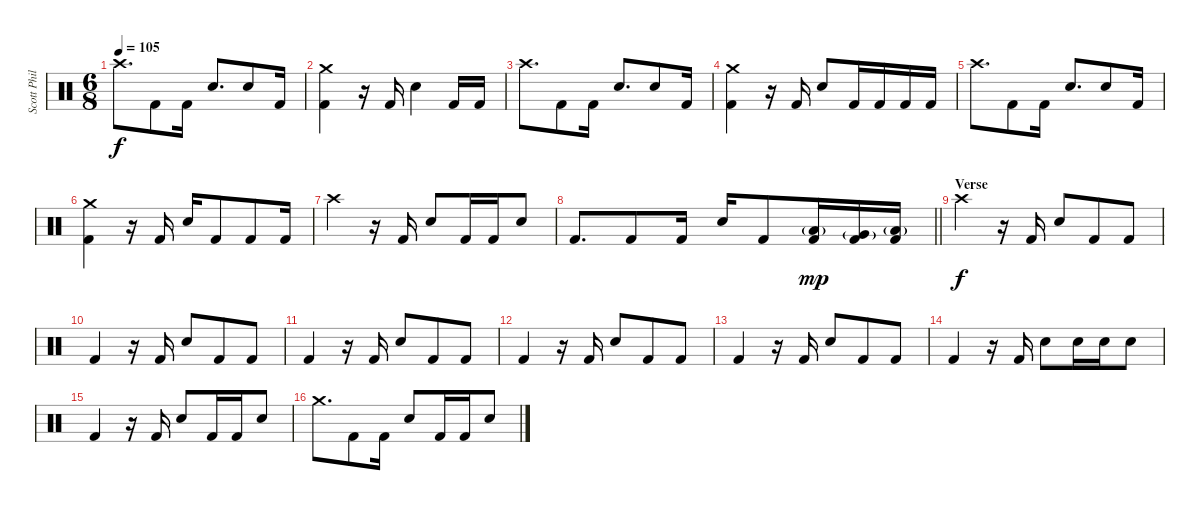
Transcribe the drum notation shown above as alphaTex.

\track ("Scott Phillips (Drums)" "Scott Phil") {instrument percussion}
\staff {score}
\articulation defaults
\ts (6 8)
\tempo 105
\clef neutral
\ks c "Crash high (hit)".8{d dy f} "Kick (hit) 2".8 "Kick (hit) 2".16 "Electric Snare (hit)".8{d} "Electric Snare (hit)".8 "Kick (hit) 2".16
|
("Crash medium (hit)" "Kick (hit) 2").4 r.16 "Kick (hit) 2".16 "Electric Snare (hit)".4 "Kick (hit) 2".16 "Kick (hit) 2".16 |
"Crash high (hit)".8{d} "Kick (hit) 2".8 "Kick (hit) 2".16 "Electric Snare (hit)".8{d} "Electric Snare (hit)".8 "Kick (hit) 2".16 |
("Crash medium (hit)" "Kick (hit) 2").4 r.16 "Kick (hit) 2".16 "Electric Snare (hit)".8 "Kick (hit) 2".16 "Kick (hit) 2".16 "Kick (hit) 2".16 "Kick (hit) 2".16 |
"Crash high (hit)".8{d} "Kick (hit) 2".8 "Kick (hit) 2".16 "Electric Snare (hit)".8{d} "Electric Snare (hit)".8 "Kick (hit) 2".16 |
("Crash medium (hit)" "Kick (hit) 2").4 r.16 "Kick (hit) 2".16 "Electric Snare (hit)".16 "Kick (hit) 2".8 "Kick (hit) 2".8 "Kick (hit) 2".16 |
"Crash high (hit)".4 r.16 "Kick (hit) 2".16 "Electric Snare (hit)".8 "Kick (hit) 2".16 "Kick (hit) 2".16 "Electric Snare (hit)".8 |
\barLineRight lightlight "Kick (hit) 2".8{d} "Kick (hit) 2".8 "Kick (hit) 2".16 "Electric Snare (hit)".16 "Kick (hit) 2".8
("Kick (hit) 2" "Low Tom (hit)"{g}).16{dy mp} ("Kick (hit) 2" "Very Low Tom (hit)"{g}).16 ("Kick (hit) 2" "Low Floor Tom (hit)"{g}).16 |
\section ("" "Verse")
"Crash high (hit)".4{dy f} r.16 "Kick (hit) 2".16 "Electric Snare (hit)".8 "Kick (hit) 2".8 "Kick (hit) 2".8 |
"Kick (hit) 2".4 r.16 "Kick (hit) 2".16 "Electric Snare (hit)".8 "Kick (hit) 2".8 "Kick (hit) 2".8 |
"Kick (hit) 2".4 r.16 "Kick (hit) 2".16 "Electric Snare (hit)".8 "Kick (hit) 2".8 "Kick (hit) 2".8 |
"Kick (hit) 2".4 r.16 "Kick (hit) 2".16 "Electric Snare (hit)".8 "Kick (hit) 2".8 "Kick (hit) 2".8 |
"Kick (hit) 2".4 r.16 "Kick (hit) 2".16 "Electric Snare (hit)".8 "Kick (hit) 2".8 "Kick (hit) 2".8 |
"Kick (hit) 2".4 r.16 "Kick (hit) 2".16 "Electric Snare (hit)".8 "Electric Snare (hit)".16 "Electric Snare (hit)".16 "Electric Snare (hit)".8 |
"Kick (hit) 2".4 r.16 "Kick (hit) 2".16 "Electric Snare (hit)".8 "Kick (hit) 2".16 "Kick (hit) 2".16 "Electric Snare (hit)".8 |
"Crash medium (hit)".8{d} "Kick (hit) 2".8 "Kick (hit) 2".16 "Electric Snare (hit)".8 "Kick (hit) 2".16 "Kick (hit) 2".16 "Electric Snare (hit)".8
